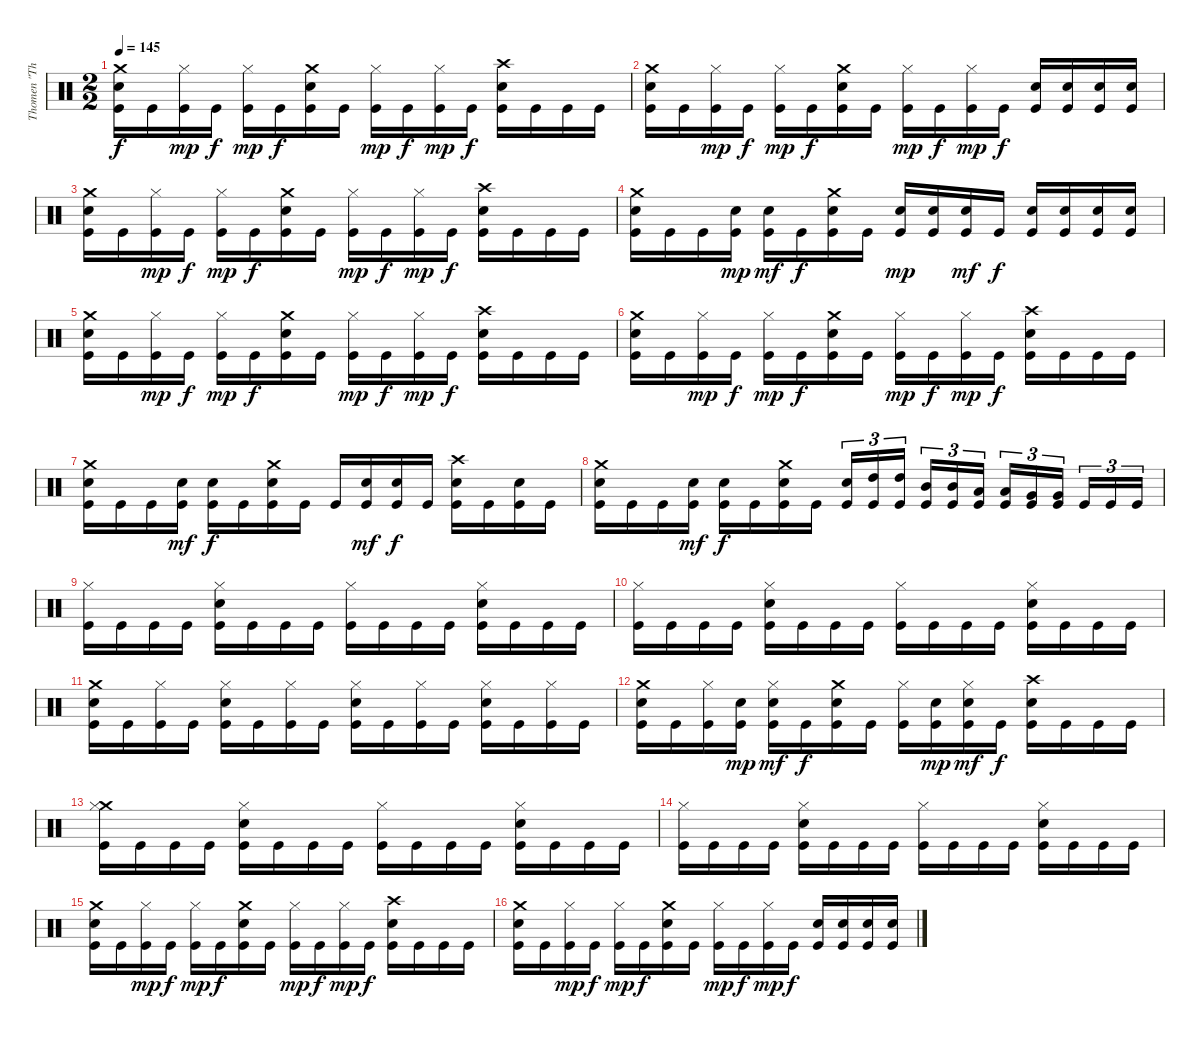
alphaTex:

\track ("Thomen \"The Omen\" Stauch" "Thomen \"Th") {instrument percussion}
\staff {score}
\articulation defaults
\ts (2 2)
\tempo 145
\clef neutral
\ks c
("Crash medium (hit)" "Snare (hit) 2" "Kick (hit)").16{dy f} "Kick (hit)".16 ("Hi-Hat (closed)" "Kick (hit)").16{dy mp} "Kick (hit)".16{dy f} ("Hi-Hat (closed)" "Kick (hit)").16{dy mp} "Kick (hit)".16{dy f} ("Crash medium (hit)" "Snare (hit) 2" "Kick (hit)").16 "Kick (hit)".16 ("Hi-Hat (closed)" "Kick (hit)").16{dy mp} "Kick (hit)".16{dy f} ("Hi-Hat (closed)" "Kick (hit)").16{dy mp} "Kick (hit)".16{dy f} ("Crash high (hit)" "Snare (hit) 2" "Kick (hit)").16 "Kick (hit)".16 "Kick (hit)".16 "Kick (hit)".16 |
("Crash medium (hit)" "Snare (hit) 2" "Kick (hit)").16 "Kick (hit)".16 ("Hi-Hat (closed)" "Kick (hit)").16{dy mp} "Kick (hit)".16{dy f} ("Hi-Hat (closed)" "Kick (hit)").16{dy mp} "Kick (hit)".16{dy f} ("Crash medium (hit)" "Snare (hit) 2" "Kick (hit)").16 "Kick (hit)".16 ("Hi-Hat (closed)" "Kick (hit)").16{dy mp} "Kick (hit)".16{dy f} ("Hi-Hat (closed)" "Kick (hit)").16{dy mp} "Kick (hit)".16{dy f} ("Snare (hit) 2" "Kick (hit)").16 ("Snare (hit) 2" "Kick (hit)").16 ("Snare (hit) 2" "Kick (hit)").16 ("Snare (hit) 2" "Kick (hit)").16 |
("Crash medium (hit)" "Snare (hit) 2" "Kick (hit)").16 "Kick (hit)".16 ("Hi-Hat (closed)" "Kick (hit)").16{dy mp} "Kick (hit)".16{dy f} ("Hi-Hat (closed)" "Kick (hit)").16{dy mp} "Kick (hit)".16{dy f} ("Crash medium (hit)" "Snare (hit) 2" "Kick (hit)").16 "Kick (hit)".16 ("Hi-Hat (closed)" "Kick (hit)").16{dy mp} "Kick (hit)".16{dy f} ("Hi-Hat (closed)" "Kick (hit)").16{dy mp} "Kick (hit)".16{dy f} ("Crash high (hit)" "Snare (hit) 2" "Kick (hit)").16 "Kick (hit)".16 "Kick (hit)".16 "Kick (hit)".16 |
("Crash medium (hit)" "Snare (hit) 2" "Kick (hit)").16 "Kick (hit)".16 "Kick (hit)".16 ("Snare (hit) 2" "Kick (hit)").16{dy mp} ("Snare (hit) 2" "Kick (hit)").16{dy mf} "Kick (hit)".16{dy f} ("Crash medium (hit)" "Snare (hit) 2" "Kick (hit)").16 "Kick (hit)".16 ("Snare (hit) 2" "Kick (hit)").16{dy mp} ("Snare (hit) 2" "Kick (hit)").16 ("Snare (hit) 2" "Kick (hit)").16{dy mf} "Kick (hit)".16{dy f} ("Snare (hit) 2" "Kick (hit)").16 ("Snare (hit) 2" "Kick (hit)").16 ("Snare (hit) 2" "Kick (hit)").16 ("Snare (hit) 2" "Kick (hit)").16 |
("Crash medium (hit)" "Snare (hit) 2" "Kick (hit)").16 "Kick (hit)".16 ("Hi-Hat (closed)" "Kick (hit)").16{dy mp} "Kick (hit)".16{dy f} ("Hi-Hat (closed)" "Kick (hit)").16{dy mp} "Kick (hit)".16{dy f} ("Crash medium (hit)" "Snare (hit) 2" "Kick (hit)").16 "Kick (hit)".16 ("Hi-Hat (closed)" "Kick (hit)").16{dy mp} "Kick (hit)".16{dy f} ("Hi-Hat (closed)" "Kick (hit)").16{dy mp} "Kick (hit)".16{dy f} ("Crash high (hit)" "Snare (hit) 2" "Kick (hit)").16 "Kick (hit)".16 "Kick (hit)".16 "Kick (hit)".16 |
("Crash medium (hit)" "Snare (hit) 2" "Kick (hit)").16 "Kick (hit)".16 ("Hi-Hat (closed)" "Kick (hit)").16{dy mp} "Kick (hit)".16{dy f} ("Hi-Hat (closed)" "Kick (hit)").16{dy mp} "Kick (hit)".16{dy f} ("Crash medium (hit)" "Snare (hit) 2" "Kick (hit)").16 "Kick (hit)".16 ("Hi-Hat (closed)" "Kick (hit)").16{dy mp} "Kick (hit)".16{dy f} ("Hi-Hat (closed)" "Kick (hit)").16{dy mp} "Kick (hit)".16{dy f} ("Crash high (hit)" "Snare (hit) 2" "Kick (hit)").16 "Kick (hit)".16 "Kick (hit)".16 "Kick (hit)".16 |
("Crash medium (hit)" "Snare (hit) 2" "Kick (hit)").16 "Kick (hit)".16 "Kick (hit)".16 ("Snare (hit) 2" "Kick (hit)").16{dy mf} ("Snare (hit) 2" "Kick (hit)").16{dy f} "Kick (hit)".16 ("Crash medium (hit)" "Snare (hit) 2" "Kick (hit)").16 "Kick (hit)".16 "Kick (hit)".16 ("Snare (hit) 2" "Kick (hit)").16{dy mf} ("Snare (hit) 2" "Kick (hit)").16{dy f} "Kick (hit)".16 ("Crash high (hit)" "Snare (hit) 2" "Kick (hit)").16 "Kick (hit)".16 ("Snare (hit) 2" "Kick (hit)").16 "Kick (hit)".16 |
("Crash medium (hit)" "Snare (hit) 2" "Kick (hit)").16 "Kick (hit)".16 "Kick (hit)".16 ("Snare (hit) 2" "Kick (hit)").16{dy mf} ("Snare (hit) 2" "Kick (hit)").16{dy f} "Kick (hit)".16 ("Crash medium (hit)" "Snare (hit) 2" "Kick (hit)").16 "Kick (hit)".16 ("Snare (hit) 2" "Kick (hit)").16{tu (3 2)} ("High Tom (hit)" "Kick (hit)").16{tu (3 2)} ("High Tom (hit)" "Kick (hit)").16{tu (3 2)} ("Mid Tom (hit)" "Kick (hit)").16{tu (3 2)} ("Mid Tom (hit)" "Kick (hit)").16{tu (3 2)} ("Low Tom (hit)" "Kick (hit)").16{tu (3 2)} ("Low Tom (hit)" "Kick (hit)").16{tu (3 2)} ("Very Low Tom (hit)" "Kick (hit)").16{tu (3 2)} ("Very Low Tom (hit)" "Kick (hit)").16{tu (3 2)} "Kick (hit)".16{tu (3 2)} "Kick (hit)".16{tu (3 2)} "Kick (hit)".16{tu (3 2)} |
("Hi-Hat (closed)" "Kick (hit)").16 "Kick (hit)".16 "Kick (hit)".16 "Kick (hit)".16 ("Hi-Hat (closed)" "Snare (hit) 2" "Kick (hit)").16 "Kick (hit)".16 "Kick (hit)".16 "Kick (hit)".16 ("Hi-Hat (closed)" "Kick (hit)").16 "Kick (hit)".16 "Kick (hit)".16 "Kick (hit)".16 ("Hi-Hat (closed)" "Snare (hit) 2" "Kick (hit)").16 "Kick (hit)".16 "Kick (hit)".16 "Kick (hit)".16 |
("Hi-Hat (closed)" "Kick (hit)").16 "Kick (hit)".16 "Kick (hit)".16 "Kick (hit)".16 ("Hi-Hat (closed)" "Snare (hit) 2" "Kick (hit)").16 "Kick (hit)".16 "Kick (hit)".16 "Kick (hit)".16 ("Hi-Hat (closed)" "Kick (hit)").16 "Kick (hit)".16 "Kick (hit)".16 "Kick (hit)".16 ("Hi-Hat (closed)" "Snare (hit) 2" "Kick (hit)").16 "Kick (hit)".16 "Kick (hit)".16 "Kick (hit)".16 |
("Crash medium (hit)" "Snare (hit) 2" "Kick (hit)").16 "Kick (hit)".16 ("Hi-Hat (closed)" "Kick (hit)").16 "Kick (hit)".16 ("Hi-Hat (closed)" "Snare (hit) 2" "Kick (hit)").16 "Kick (hit)".16 ("Hi-Hat (closed)" "Kick (hit)").16 "Kick (hit)".16 ("Hi-Hat (closed)" "Snare (hit) 2" "Kick (hit)").16 "Kick (hit)".16 ("Hi-Hat (closed)" "Kick (hit)").16 "Kick (hit)".16 ("Hi-Hat (closed)" "Snare (hit) 2" "Kick (hit)").16 "Kick (hit)".16 ("Hi-Hat (closed)" "Kick (hit)").16 "Kick (hit)".16 |
("Crash medium (hit)" "Snare (hit) 2" "Kick (hit)").16 "Kick (hit)".16 ("Hi-Hat (closed)" "Kick (hit)").16 ("Snare (hit) 2" "Kick (hit)").16{dy mp} ("Hi-Hat (closed)" "Snare (hit) 2" "Kick (hit)").16{dy mf} "Kick (hit)".16{dy f} ("Crash medium (hit)" "Snare (hit) 2" "Kick (hit)").16 "Kick (hit)".16 ("Hi-Hat (closed)" "Kick (hit)").16 ("Snare (hit) 2" "Kick (hit)").16{dy mp} ("Hi-Hat (closed)" "Snare (hit) 2" "Kick (hit)").16{dy mf} "Kick (hit)".16{dy f} ("Crash high (hit)" "Snare (hit) 2" "Kick (hit)").16 "Kick (hit)".16 "Kick (hit)".16 "Kick (hit)".16 |
("Crash medium (hit)" "Hi-Hat (closed)" "Kick (hit)").16 "Kick (hit)".16 "Kick (hit)".16 "Kick (hit)".16 ("Hi-Hat (closed)" "Snare (hit) 2" "Kick (hit)").16 "Kick (hit)".16 "Kick (hit)".16 "Kick (hit)".16 ("Hi-Hat (closed)" "Kick (hit)").16 "Kick (hit)".16 "Kick (hit)".16 "Kick (hit)".16 ("Hi-Hat (closed)" "Snare (hit) 2" "Kick (hit)").16 "Kick (hit)".16 "Kick (hit)".16 "Kick (hit)".16 |
("Hi-Hat (closed)" "Kick (hit)").16 "Kick (hit)".16 "Kick (hit)".16 "Kick (hit)".16 ("Hi-Hat (closed)" "Snare (hit) 2" "Kick (hit)").16 "Kick (hit)".16 "Kick (hit)".16 "Kick (hit)".16 ("Hi-Hat (closed)" "Kick (hit)").16 "Kick (hit)".16 "Kick (hit)".16 "Kick (hit)".16 ("Hi-Hat (closed)" "Snare (hit) 2" "Kick (hit)").16 "Kick (hit)".16 "Kick (hit)".16 "Kick (hit)".16 |
("Crash medium (hit)" "Snare (hit) 2" "Kick (hit)").16 "Kick (hit)".16 ("Hi-Hat (closed)" "Kick (hit)").16{dy mp} "Kick (hit)".16{dy f} ("Hi-Hat (closed)" "Kick (hit)").16{dy mp} "Kick (hit)".16{dy f} ("Crash medium (hit)" "Snare (hit) 2" "Kick (hit)").16 "Kick (hit)".16 ("Hi-Hat (closed)" "Kick (hit)").16{dy mp} "Kick (hit)".16{dy f} ("Hi-Hat (closed)" "Kick (hit)").16{dy mp} "Kick (hit)".16{dy f} ("Crash high (hit)" "Snare (hit) 2" "Kick (hit)").16 "Kick (hit)".16 "Kick (hit)".16 "Kick (hit)".16 |
("Crash medium (hit)" "Snare (hit) 2" "Kick (hit)").16 "Kick (hit)".16 ("Hi-Hat (closed)" "Kick (hit)").16{dy mp} "Kick (hit)".16{dy f} ("Hi-Hat (closed)" "Kick (hit)").16{dy mp} "Kick (hit)".16{dy f} ("Crash medium (hit)" "Snare (hit) 2" "Kick (hit)").16 "Kick (hit)".16 ("Hi-Hat (closed)" "Kick (hit)").16{dy mp} "Kick (hit)".16{dy f} ("Hi-Hat (closed)" "Kick (hit)").16{dy mp} "Kick (hit)".16{dy f} ("Snare (hit) 2" "Kick (hit)").16 ("Snare (hit) 2" "Kick (hit)").16 ("Snare (hit) 2" "Kick (hit)").16 ("Snare (hit) 2" "Kick (hit)").16
